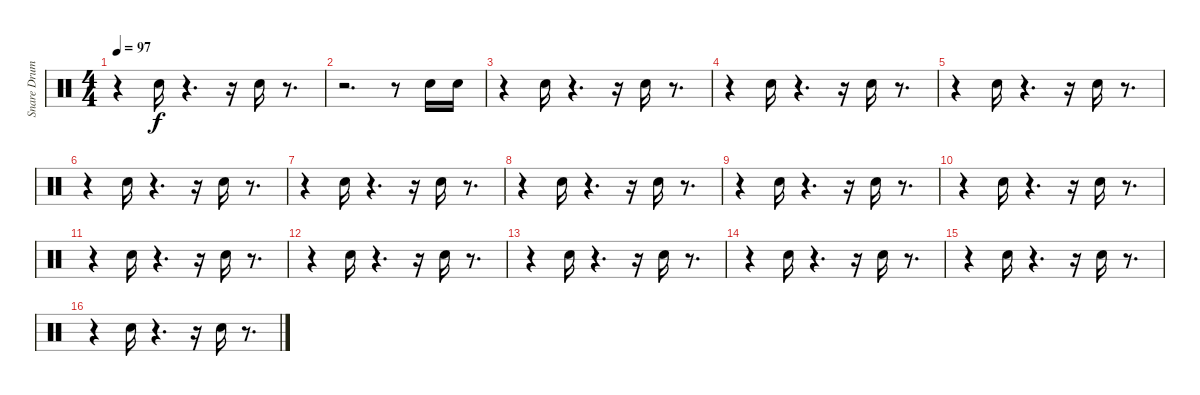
\track ("Snare Drum" "Snare Drum") {instrument percussion}
\staff {score}
\articulation defaults
\ts (4 4)
\tempo 97
\clef neutral
\ks c
r.4{dy f} "Snare (hit) 2".16 r.4{d} r.16 "Snare (hit) 2".16 r.8{d} |
r.2{d} r.8 "Snare (hit) 2".16 "Snare (hit) 2".16 |
r.4 "Snare (hit) 2".16 r.4{d} r.16 "Snare (hit) 2".16 r.8{d} |
r.4 "Snare (hit) 2".16 r.4{d} r.16 "Snare (hit) 2".16 r.8{d} |
r.4 "Snare (hit) 2".16 r.4{d} r.16 "Snare (hit) 2".16 r.8{d} |
r.4 "Snare (hit) 2".16 r.4{d} r.16 "Snare (hit) 2".16 r.8{d} |
r.4 "Snare (hit) 2".16 r.4{d} r.16 "Snare (hit) 2".16 r.8{d} |
r.4 "Snare (hit) 2".16 r.4{d} r.16 "Snare (hit) 2".16 r.8{d} |
r.4 "Snare (hit) 2".16 r.4{d} r.16 "Snare (hit) 2".16 r.8{d} |
r.4 "Snare (hit) 2".16 r.4{d} r.16 "Snare (hit) 2".16 r.8{d} |
r.4 "Snare (hit) 2".16 r.4{d} r.16 "Snare (hit) 2".16 r.8{d} |
r.4 "Snare (hit) 2".16 r.4{d} r.16 "Snare (hit) 2".16 r.8{d} |
r.4 "Snare (hit) 2".16 r.4{d} r.16 "Snare (hit) 2".16 r.8{d} |
r.4 "Snare (hit) 2".16 r.4{d} r.16 "Snare (hit) 2".16 r.8{d} |
r.4 "Snare (hit) 2".16 r.4{d} r.16 "Snare (hit) 2".16 r.8{d} |
r.4 "Snare (hit) 2".16 r.4{d} r.16 "Snare (hit) 2".16 r.8{d}
